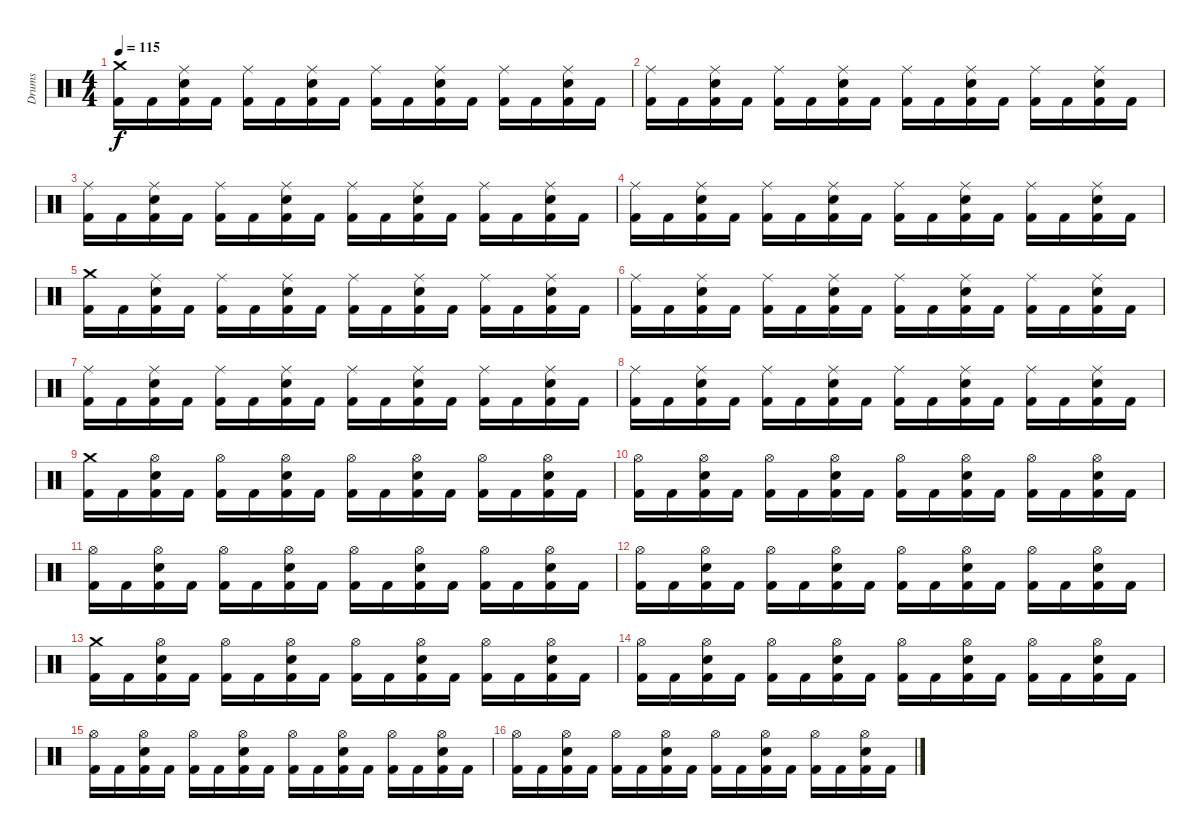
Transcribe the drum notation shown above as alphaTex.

\track ("Drums" "Drums") {instrument percussion}
\staff {score}
\articulation defaults
\ts (4 4)
\tempo 115
\clef neutral
\ks c
("Crash medium (hit)" "Kick (hit) 2").16{dy f} "Kick (hit) 2".16 ("Ride (middle)" "Electric Snare (hit)" "Kick (hit) 2").16 "Kick (hit) 2".16 ("Ride (middle)" "Kick (hit) 2").16 "Kick (hit) 2".16 ("Ride (middle)" "Electric Snare (hit)" "Kick (hit) 2").16 "Kick (hit) 2".16 ("Ride (middle)" "Kick (hit) 2").16 "Kick (hit) 2".16 ("Ride (middle)" "Electric Snare (hit)" "Kick (hit) 2").16 "Kick (hit) 2".16 ("Ride (middle)" "Kick (hit) 2").16 "Kick (hit) 2".16 ("Ride (middle)" "Electric Snare (hit)" "Kick (hit) 2").16 "Kick (hit) 2".16 |
("Ride (middle)" "Kick (hit) 2").16 "Kick (hit) 2".16 ("Ride (middle)" "Electric Snare (hit)" "Kick (hit) 2").16 "Kick (hit) 2".16 ("Ride (middle)" "Kick (hit) 2").16 "Kick (hit) 2".16 ("Ride (middle)" "Electric Snare (hit)" "Kick (hit) 2").16 "Kick (hit) 2".16 ("Ride (middle)" "Kick (hit) 2").16 "Kick (hit) 2".16 ("Ride (middle)" "Electric Snare (hit)" "Kick (hit) 2").16 "Kick (hit) 2".16 ("Ride (middle)" "Kick (hit) 2").16 "Kick (hit) 2".16 ("Ride (middle)" "Electric Snare (hit)" "Kick (hit) 2").16 "Kick (hit) 2".16 |
("Ride (middle)" "Kick (hit) 2").16 "Kick (hit) 2".16 ("Ride (middle)" "Electric Snare (hit)" "Kick (hit) 2").16 "Kick (hit) 2".16 ("Ride (middle)" "Kick (hit) 2").16 "Kick (hit) 2".16 ("Ride (middle)" "Electric Snare (hit)" "Kick (hit) 2").16 "Kick (hit) 2".16 ("Ride (middle)" "Kick (hit) 2").16 "Kick (hit) 2".16 ("Ride (middle)" "Electric Snare (hit)" "Kick (hit) 2").16 "Kick (hit) 2".16 ("Ride (middle)" "Kick (hit) 2").16 "Kick (hit) 2".16 ("Ride (middle)" "Electric Snare (hit)" "Kick (hit) 2").16 "Kick (hit) 2".16 |
("Ride (middle)" "Kick (hit) 2").16 "Kick (hit) 2".16 ("Ride (middle)" "Electric Snare (hit)" "Kick (hit) 2").16 "Kick (hit) 2".16 ("Ride (middle)" "Kick (hit) 2").16 "Kick (hit) 2".16 ("Ride (middle)" "Electric Snare (hit)" "Kick (hit) 2").16 "Kick (hit) 2".16 ("Ride (middle)" "Kick (hit) 2").16 "Kick (hit) 2".16 ("Ride (middle)" "Electric Snare (hit)" "Kick (hit) 2").16 "Kick (hit) 2".16 ("Ride (middle)" "Kick (hit) 2").16 "Kick (hit) 2".16 ("Ride (middle)" "Electric Snare (hit)" "Kick (hit) 2").16 "Kick (hit) 2".16 |
("Crash medium (hit)" "Kick (hit) 2").16 "Kick (hit) 2".16 ("Ride (middle)" "Electric Snare (hit)" "Kick (hit) 2").16 "Kick (hit) 2".16 ("Ride (middle)" "Kick (hit) 2").16 "Kick (hit) 2".16 ("Ride (middle)" "Electric Snare (hit)" "Kick (hit) 2").16 "Kick (hit) 2".16 ("Ride (middle)" "Kick (hit) 2").16 "Kick (hit) 2".16 ("Ride (middle)" "Electric Snare (hit)" "Kick (hit) 2").16 "Kick (hit) 2".16 ("Ride (middle)" "Kick (hit) 2").16 "Kick (hit) 2".16 ("Ride (middle)" "Electric Snare (hit)" "Kick (hit) 2").16 "Kick (hit) 2".16 |
("Ride (middle)" "Kick (hit) 2").16 "Kick (hit) 2".16 ("Ride (middle)" "Electric Snare (hit)" "Kick (hit) 2").16 "Kick (hit) 2".16 ("Ride (middle)" "Kick (hit) 2").16 "Kick (hit) 2".16 ("Ride (middle)" "Electric Snare (hit)" "Kick (hit) 2").16 "Kick (hit) 2".16 ("Ride (middle)" "Kick (hit) 2").16 "Kick (hit) 2".16 ("Ride (middle)" "Electric Snare (hit)" "Kick (hit) 2").16 "Kick (hit) 2".16 ("Ride (middle)" "Kick (hit) 2").16 "Kick (hit) 2".16 ("Ride (middle)" "Electric Snare (hit)" "Kick (hit) 2").16 "Kick (hit) 2".16 |
("Ride (middle)" "Kick (hit) 2").16 "Kick (hit) 2".16 ("Ride (middle)" "Electric Snare (hit)" "Kick (hit) 2").16 "Kick (hit) 2".16 ("Ride (middle)" "Kick (hit) 2").16 "Kick (hit) 2".16 ("Ride (middle)" "Electric Snare (hit)" "Kick (hit) 2").16 "Kick (hit) 2".16 ("Ride (middle)" "Kick (hit) 2").16 "Kick (hit) 2".16 ("Ride (middle)" "Electric Snare (hit)" "Kick (hit) 2").16 "Kick (hit) 2".16 ("Ride (middle)" "Kick (hit) 2").16 "Kick (hit) 2".16 ("Ride (middle)" "Electric Snare (hit)" "Kick (hit) 2").16 "Kick (hit) 2".16 |
("Ride (middle)" "Kick (hit) 2").16 "Kick (hit) 2".16 ("Ride (middle)" "Electric Snare (hit)" "Kick (hit) 2").16 "Kick (hit) 2".16 ("Ride (middle)" "Kick (hit) 2").16 "Kick (hit) 2".16 ("Ride (middle)" "Electric Snare (hit)" "Kick (hit) 2").16 "Kick (hit) 2".16 ("Ride (middle)" "Kick (hit) 2").16 "Kick (hit) 2".16 ("Ride (middle)" "Electric Snare (hit)" "Kick (hit) 2").16 "Kick (hit) 2".16 ("Ride (middle)" "Kick (hit) 2").16 "Kick (hit) 2".16 ("Ride (middle)" "Electric Snare (hit)" "Kick (hit) 2").16 "Kick (hit) 2".16 |
("Crash medium (hit)" "Kick (hit) 2").16 "Kick (hit) 2".16 ("Hi-Hat (open)" "Electric Snare (hit)" "Kick (hit) 2").16 "Kick (hit) 2".16 ("Hi-Hat (open)" "Kick (hit) 2").16 "Kick (hit) 2".16 ("Hi-Hat (open)" "Electric Snare (hit)" "Kick (hit) 2").16 "Kick (hit) 2".16 ("Hi-Hat (open)" "Kick (hit) 2").16 "Kick (hit) 2".16 ("Hi-Hat (open)" "Electric Snare (hit)" "Kick (hit) 2").16 "Kick (hit) 2".16 ("Hi-Hat (open)" "Kick (hit) 2").16 "Kick (hit) 2".16 ("Hi-Hat (open)" "Electric Snare (hit)" "Kick (hit) 2").16 "Kick (hit) 2".16 |
("Hi-Hat (open)" "Kick (hit) 2").16 "Kick (hit) 2".16 ("Hi-Hat (open)" "Electric Snare (hit)" "Kick (hit) 2").16 "Kick (hit) 2".16 ("Hi-Hat (open)" "Kick (hit) 2").16 "Kick (hit) 2".16 ("Hi-Hat (open)" "Electric Snare (hit)" "Kick (hit) 2").16 "Kick (hit) 2".16 ("Hi-Hat (open)" "Kick (hit) 2").16 "Kick (hit) 2".16 ("Hi-Hat (open)" "Electric Snare (hit)" "Kick (hit) 2").16 "Kick (hit) 2".16 ("Hi-Hat (open)" "Kick (hit) 2").16 "Kick (hit) 2".16 ("Hi-Hat (open)" "Electric Snare (hit)" "Kick (hit) 2").16 "Kick (hit) 2".16 |
("Hi-Hat (open)" "Kick (hit) 2").16 "Kick (hit) 2".16 ("Hi-Hat (open)" "Electric Snare (hit)" "Kick (hit) 2").16 "Kick (hit) 2".16 ("Hi-Hat (open)" "Kick (hit) 2").16 "Kick (hit) 2".16 ("Hi-Hat (open)" "Electric Snare (hit)" "Kick (hit) 2").16 "Kick (hit) 2".16 ("Hi-Hat (open)" "Kick (hit) 2").16 "Kick (hit) 2".16 ("Hi-Hat (open)" "Electric Snare (hit)" "Kick (hit) 2").16 "Kick (hit) 2".16 ("Hi-Hat (open)" "Kick (hit) 2").16 "Kick (hit) 2".16 ("Hi-Hat (open)" "Electric Snare (hit)" "Kick (hit) 2").16 "Kick (hit) 2".16 |
("Hi-Hat (open)" "Kick (hit) 2").16 "Kick (hit) 2".16 ("Hi-Hat (open)" "Electric Snare (hit)" "Kick (hit) 2").16 "Kick (hit) 2".16 ("Hi-Hat (open)" "Kick (hit) 2").16 "Kick (hit) 2".16 ("Hi-Hat (open)" "Electric Snare (hit)" "Kick (hit) 2").16 "Kick (hit) 2".16 ("Hi-Hat (open)" "Kick (hit) 2").16 "Kick (hit) 2".16 ("Hi-Hat (open)" "Electric Snare (hit)" "Kick (hit) 2").16 "Kick (hit) 2".16 ("Hi-Hat (open)" "Kick (hit) 2").16 "Kick (hit) 2".16 ("Hi-Hat (open)" "Electric Snare (hit)" "Kick (hit) 2").16 "Kick (hit) 2".16 |
("Crash medium (hit)" "Kick (hit) 2").16 "Kick (hit) 2".16 ("Hi-Hat (open)" "Electric Snare (hit)" "Kick (hit) 2").16 "Kick (hit) 2".16 ("Hi-Hat (open)" "Kick (hit) 2").16 "Kick (hit) 2".16 ("Hi-Hat (open)" "Electric Snare (hit)" "Kick (hit) 2").16 "Kick (hit) 2".16 ("Hi-Hat (open)" "Kick (hit) 2").16 "Kick (hit) 2".16 ("Hi-Hat (open)" "Electric Snare (hit)" "Kick (hit) 2").16 "Kick (hit) 2".16 ("Hi-Hat (open)" "Kick (hit) 2").16 "Kick (hit) 2".16 ("Hi-Hat (open)" "Electric Snare (hit)" "Kick (hit) 2").16 "Kick (hit) 2".16 |
("Hi-Hat (open)" "Kick (hit) 2").16 "Kick (hit) 2".16 ("Hi-Hat (open)" "Electric Snare (hit)" "Kick (hit) 2").16 "Kick (hit) 2".16 ("Hi-Hat (open)" "Kick (hit) 2").16 "Kick (hit) 2".16 ("Hi-Hat (open)" "Electric Snare (hit)" "Kick (hit) 2").16 "Kick (hit) 2".16 ("Hi-Hat (open)" "Kick (hit) 2").16 "Kick (hit) 2".16 ("Hi-Hat (open)" "Electric Snare (hit)" "Kick (hit) 2").16 "Kick (hit) 2".16 ("Hi-Hat (open)" "Kick (hit) 2").16 "Kick (hit) 2".16 ("Hi-Hat (open)" "Electric Snare (hit)" "Kick (hit) 2").16 "Kick (hit) 2".16 |
("Hi-Hat (open)" "Kick (hit) 2").16 "Kick (hit) 2".16 ("Hi-Hat (open)" "Electric Snare (hit)" "Kick (hit) 2").16 "Kick (hit) 2".16 ("Hi-Hat (open)" "Kick (hit) 2").16 "Kick (hit) 2".16 ("Hi-Hat (open)" "Electric Snare (hit)" "Kick (hit) 2").16 "Kick (hit) 2".16 ("Hi-Hat (open)" "Kick (hit) 2").16 "Kick (hit) 2".16 ("Hi-Hat (open)" "Electric Snare (hit)" "Kick (hit) 2").16 "Kick (hit) 2".16 ("Hi-Hat (open)" "Kick (hit) 2").16 "Kick (hit) 2".16 ("Hi-Hat (open)" "Electric Snare (hit)" "Kick (hit) 2").16 "Kick (hit) 2".16 |
("Hi-Hat (open)" "Kick (hit) 2").16 "Kick (hit) 2".16 ("Hi-Hat (open)" "Electric Snare (hit)" "Kick (hit) 2").16 "Kick (hit) 2".16 ("Hi-Hat (open)" "Kick (hit) 2").16 "Kick (hit) 2".16 ("Hi-Hat (open)" "Electric Snare (hit)" "Kick (hit) 2").16 "Kick (hit) 2".16 ("Hi-Hat (open)" "Kick (hit) 2").16 "Kick (hit) 2".16 ("Hi-Hat (open)" "Electric Snare (hit)" "Kick (hit) 2").16 "Kick (hit) 2".16 ("Hi-Hat (open)" "Kick (hit) 2").16 "Kick (hit) 2".16 ("Hi-Hat (open)" "Electric Snare (hit)" "Kick (hit) 2").16 "Kick (hit) 2".16
